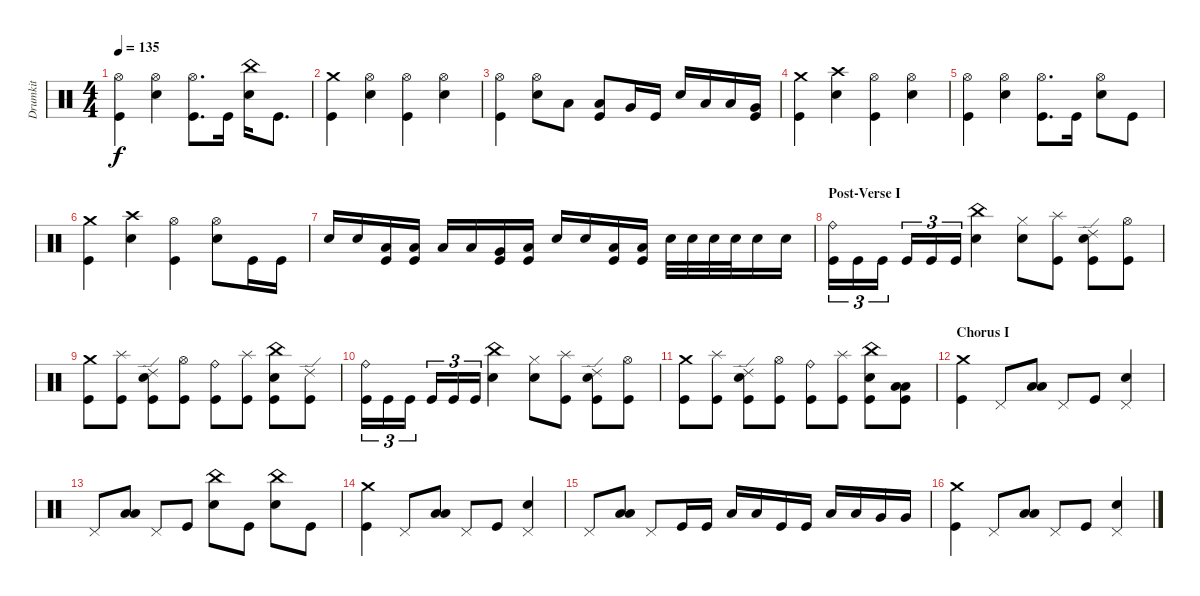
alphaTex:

\track ("Drumkit" "Drumkit") {instrument percussion}
\staff {score}
\articulation defaults
\ts (4 4)
\tempo 135
\clef neutral
\ks c
("Kick (hit)" "Hi-Hat (open)").4{dy f} ("Snare (hit) 2" "Hi-Hat (open)").4 ("Kick (hit)" "Hi-Hat (open)").8{d} "Kick (hit)".16 ("Snare (hit) 2" "China (hit)").16 "Kick (hit)".8{d} |
("Kick (hit)" "Crash medium (hit)").4 ("Snare (hit) 2" "Hi-Hat (open)").4 ("Kick (hit)" "Hi-Hat (open)").4 ("Snare (hit) 2" "Hi-Hat (open)").4 |
("Kick (hit)" "Hi-Hat (open)").4 ("Snare (hit) 2" "Hi-Hat (open)").8 "Low Tom (hit)".8 ("Kick (hit)" "Low Tom (hit)").8 "Very Low Tom (hit)".16 "Kick (hit)".16 "Snare (hit) 2".16 "Low Tom (hit)".16 "Low Tom (hit)".16 ("Kick (hit)" "Very Low Tom (hit)").16 |
("Kick (hit)" "Crash medium (hit)").4 ("Snare (hit) 2" "Crash high (hit)").4 ("Kick (hit)" "Hi-Hat (open)").4 ("Snare (hit) 2" "Hi-Hat (open)").4 |
("Kick (hit)" "Hi-Hat (open)").4 ("Snare (hit) 2" "Hi-Hat (open)").4 ("Kick (hit)" "Hi-Hat (open)").8{d} "Kick (hit)".16 ("Snare (hit) 2" "Hi-Hat (open)").8 "Kick (hit)".8 |
("Kick (hit)" "Crash medium (hit)").4 ("Snare (hit) 2" "Crash high (hit)").4 ("Kick (hit)" "Hi-Hat (open)").4 ("Snare (hit) 2" "Hi-Hat (open)").8 "Kick (hit)".16 "Kick (hit)".16 |
"Snare (hit) 2".16 "Snare (hit) 2".16 ("Kick (hit)" "Low Tom (hit)").16 ("Kick (hit)" "Low Floor Tom (hit)").16 "Low Tom (hit)".16 "Low Tom (hit)".16 ("Kick (hit)" "Very Low Tom (hit)").16 ("Kick (hit)" "Low Floor Tom (hit)").16 "Snare (hit) 2".16 "Snare (hit) 2".16 ("Kick (hit)" "Low Tom (hit)").16 ("Kick (hit)" "Low Floor Tom (hit)").16 "Snare (hit) 2".32 "Snare (hit) 2".32 "Snare (hit) 2".32 "Snare (hit) 2".32 "Snare (hit) 2".16 "Snare (hit) 2".16 |
\section ("" "Post-Verse I")
("Kick (hit)" "Ride (bell)").16{tu (3 2)} "Kick (hit)".16{tu (3 2)} "Kick (hit)".16{tu (3 2)} "Kick (hit)".16{tu (3 2)} "Kick (hit)".16{tu (3 2)} "Kick (hit)".16{tu (3 2)} ("Snare (hit) 2" "China (hit)").4 ("Hi-Hat (closed)" "Snare (hit) 2").8 ("Kick (hit)" "Splash (hit)").8 ("Kick (hit)" "Ride (edge) 2" "Snare (hit) 2").8 ("Kick (hit)" "Hi-Hat (open)").8 |
("Kick (hit)" "Crash medium (hit)").8 ("Kick (hit)" "Splash (hit)").8 ("Kick (hit)" "Ride (edge) 2" "Snare (hit) 2").8 ("Hi-Hat (open)" "Kick (hit)").8 ("Ride (bell)" "Kick (hit)").8 ("Kick (hit)" "Splash (hit)").8 ("Kick (hit)" "China (hit)" "Snare (hit) 2").8 ("Kick (hit)" "Ride (edge) 2").8 |
("Kick (hit)" "Ride (bell)").16{tu (3 2)} "Kick (hit)".16{tu (3 2)} "Kick (hit)".16{tu (3 2)} "Kick (hit)".16{tu (3 2)} "Kick (hit)".16{tu (3 2)} "Kick (hit)".16{tu (3 2)} ("Snare (hit) 2" "China (hit)").4 ("Hi-Hat (closed)" "Snare (hit) 2").8 ("Kick (hit)" "Splash (hit)").8 ("Kick (hit)" "Ride (edge) 2" "Snare (hit) 2").8 ("Kick (hit)" "Hi-Hat (open)").8 |
("Kick (hit)" "Crash medium (hit)").8 ("Kick (hit)" "Splash (hit)").8 ("Kick (hit)" "Ride (edge) 2" "Snare (hit) 2").8 ("Hi-Hat (open)" "Kick (hit)").8 ("Ride (bell)" "Kick (hit)").8 ("Kick (hit)" "Splash (hit)").8 ("Kick (hit)" "China (hit)" "Snare (hit) 2").8 ("Kick (hit)" "Low Tom (hit)" "Low Floor Tom (hit)").8 |
\section ("" "Chorus I")
("Kick (hit)" "Crash medium (hit)").4 "Pedal Hi-Hat (hit)".8 ("Low Tom (hit)" "Low Floor Tom (hit)").8 "Pedal Hi-Hat (hit)".8 "Kick (hit)".8 ("Snare (hit) 2" "Pedal Hi-Hat (hit)").4 |
"Pedal Hi-Hat (hit)".8 ("Low Tom (hit)" "Low Floor Tom (hit)").8 "Pedal Hi-Hat (hit)".8 "Kick (hit)".8 ("Snare (hit) 2" "China (hit)").8 "Kick (hit)".8 ("Snare (hit) 2" "China (hit)").8 "Kick (hit)".8 |
("Kick (hit)" "Crash medium (hit)").4 "Pedal Hi-Hat (hit)".8 ("Low Tom (hit)" "Low Floor Tom (hit)").8 "Pedal Hi-Hat (hit)".8 "Kick (hit)".8 ("Snare (hit) 2" "Pedal Hi-Hat (hit)").4 |
"Pedal Hi-Hat (hit)".8 ("Low Tom (hit)" "Low Floor Tom (hit)").8 "Pedal Hi-Hat (hit)".8 "Kick (hit)".16 "Kick (hit)".16 "Low Tom (hit)".16 "Low Tom (hit)".16 "Kick (hit)".16 "Kick (hit)".16 "Low Tom (hit)".16 "Low Tom (hit)".16 "Very Low Tom (hit)".16 "Very Low Tom (hit)".16 |
("Kick (hit)" "Crash medium (hit)").4 "Pedal Hi-Hat (hit)".8 ("Low Tom (hit)" "Low Floor Tom (hit)").8 "Pedal Hi-Hat (hit)".8 "Kick (hit)".8 ("Snare (hit) 2" "Pedal Hi-Hat (hit)").4
